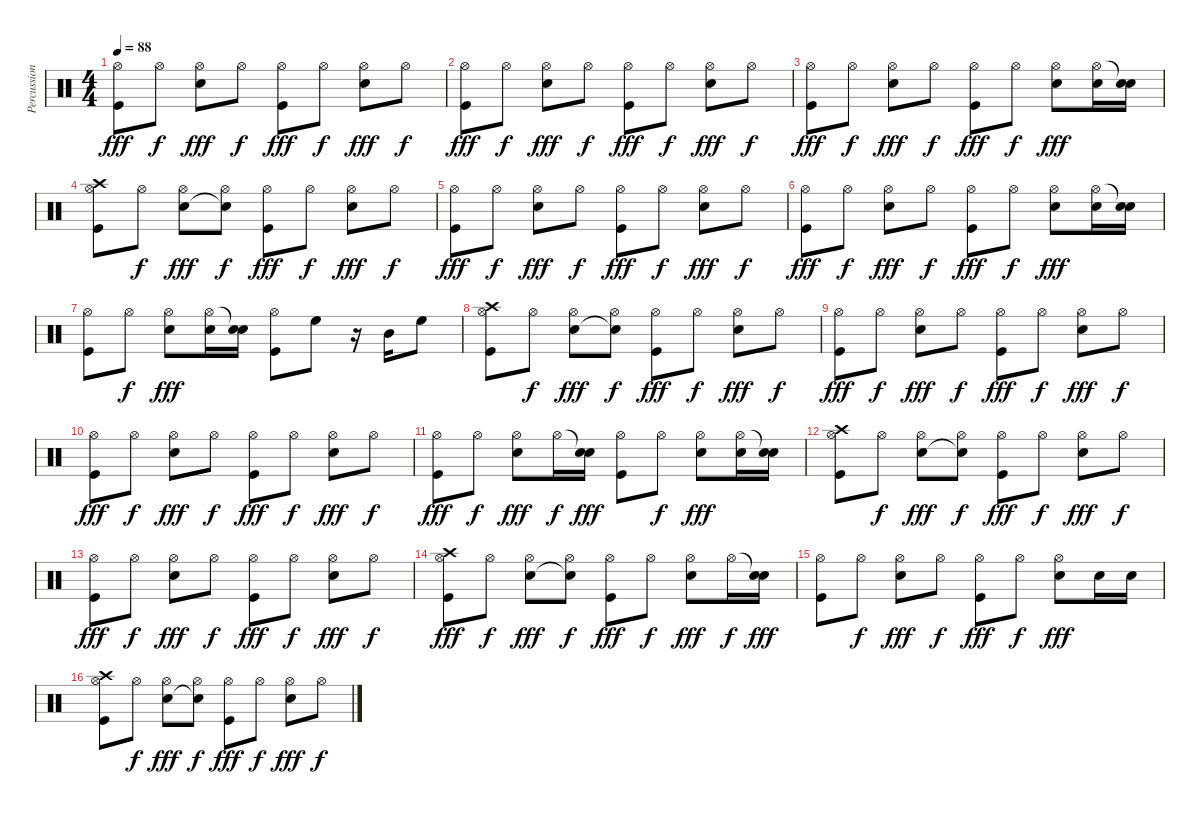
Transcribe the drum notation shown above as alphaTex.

\track ("Percussions" "Percussion") {instrument percussion}
\staff {score}
\articulation defaults
\ts (4 4)
\tempo 88
\clef neutral
\ks c
("Hi-Hat (open)" "Kick (hit)").8{dy fff} "Hi-Hat (open)".8{dy f} ("Hi-Hat (open)" "Snare (hit) 2").8{dy fff} "Hi-Hat (open)".8{dy f} ("Hi-Hat (open)" "Kick (hit)").8{dy fff} "Hi-Hat (open)".8{dy f} ("Hi-Hat (open)" "Snare (hit) 2").8{dy fff} "Hi-Hat (open)".8{dy f} |
("Hi-Hat (open)" "Kick (hit)").8{dy fff} "Hi-Hat (open)".8{dy f} ("Hi-Hat (open)" "Snare (hit) 2").8{dy fff} "Hi-Hat (open)".8{dy f} ("Hi-Hat (open)" "Kick (hit)").8{dy fff} "Hi-Hat (open)".8{dy f} ("Hi-Hat (open)" "Snare (hit) 2").8{dy fff} "Hi-Hat (open)".8{dy f} |
("Hi-Hat (open)" "Kick (hit)").8{dy fff} "Hi-Hat (open)".8{dy f} ("Hi-Hat (open)" "Snare (hit) 2").8{dy fff} "Hi-Hat (open)".8{dy f} ("Hi-Hat (open)" "Kick (hit)").8{dy fff} "Hi-Hat (open)".8{dy f} ("Hi-Hat (open)" "Snare (hit) 2").8{dy fff} ("Hi-Hat (open)" "Snare (hit) 2").16 ("Snare (hit)"{t} "Snare (hit) 2").16 |
("Hi-Hat (open)" "Kick (hit)" "Crash high (hit)").8 "Hi-Hat (open)".8{dy f} ("Hi-Hat (open)" "Snare (hit) 2").8{dy fff} ("Hi-Hat (open)" "Snare (hit)"{t}).8{dy f} ("Hi-Hat (open)" "Kick (hit)").8{dy fff} "Hi-Hat (open)".8{dy f} ("Hi-Hat (open)" "Snare (hit) 2").8{dy fff} "Hi-Hat (open)".8{dy f} |
("Hi-Hat (open)" "Kick (hit)").8{dy fff} "Hi-Hat (open)".8{dy f} ("Hi-Hat (open)" "Snare (hit) 2").8{dy fff} "Hi-Hat (open)".8{dy f} ("Hi-Hat (open)" "Kick (hit)").8{dy fff} "Hi-Hat (open)".8{dy f} ("Hi-Hat (open)" "Snare (hit) 2").8{dy fff} "Hi-Hat (open)".8{dy f} |
("Hi-Hat (open)" "Kick (hit)").8{dy fff} "Hi-Hat (open)".8{dy f} ("Hi-Hat (open)" "Snare (hit) 2").8{dy fff} "Hi-Hat (open)".8{dy f} ("Hi-Hat (open)" "Kick (hit)").8{dy fff} "Hi-Hat (open)".8{dy f} ("Hi-Hat (open)" "Snare (hit) 2").8{dy fff} ("Hi-Hat (open)" "Snare (hit) 2").16 ("Snare (hit)"{t} "Snare (hit) 2").16 |
("Hi-Hat (open)" "Kick (hit)").8 "Hi-Hat (open)".8{dy f} ("Hi-Hat (open)" "Snare (hit) 2").8{dy fff} ("Hi-Hat (open)" "Snare (hit) 2").16 ("Snare (hit)"{t} "Snare (hit) 2").16 ("Hi-Hat (open)" "Kick (hit)").8 "High Floor Tom (hit)".8 r.16 "Mid Tom (hit)".16 "High Floor Tom (hit)".8 |
("Hi-Hat (open)" "Kick (hit)" "Crash high (hit)").8 "Hi-Hat (open)".8{dy f} ("Hi-Hat (open)" "Snare (hit) 2").8{dy fff} ("Hi-Hat (open)" "Snare (hit)"{t}).8{dy f} ("Hi-Hat (open)" "Kick (hit)").8{dy fff} "Hi-Hat (open)".8{dy f} ("Hi-Hat (open)" "Snare (hit) 2").8{dy fff} "Hi-Hat (open)".8{dy f} |
("Hi-Hat (open)" "Kick (hit)").8{dy fff} "Hi-Hat (open)".8{dy f} ("Hi-Hat (open)" "Snare (hit) 2").8{dy fff} "Hi-Hat (open)".8{dy f} ("Hi-Hat (open)" "Kick (hit)").8{dy fff} "Hi-Hat (open)".8{dy f} ("Hi-Hat (open)" "Snare (hit) 2").8{dy fff} "Hi-Hat (open)".8{dy f} |
("Hi-Hat (open)" "Kick (hit)").8{dy fff} "Hi-Hat (open)".8{dy f} ("Hi-Hat (open)" "Snare (hit) 2").8{dy fff} "Hi-Hat (open)".8{dy f} ("Hi-Hat (open)" "Kick (hit)").8{dy fff} "Hi-Hat (open)".8{dy f} ("Hi-Hat (open)" "Snare (hit) 2").8{dy fff} "Hi-Hat (open)".8{dy f} |
("Hi-Hat (open)" "Kick (hit)").8{dy fff} "Hi-Hat (open)".8{dy f} ("Hi-Hat (open)" "Snare (hit) 2").8{dy fff} "Hi-Hat (open)".16{dy f} ("Snare (hit)"{t} "Snare (hit) 2").16{dy fff} ("Hi-Hat (open)" "Kick (hit)").8 "Hi-Hat (open)".8{dy f} ("Hi-Hat (open)" "Snare (hit) 2").8{dy fff} ("Hi-Hat (open)" "Snare (hit) 2").16 ("Snare (hit)"{t} "Snare (hit) 2").16 |
("Hi-Hat (open)" "Kick (hit)" "Crash high (hit)").8 "Hi-Hat (open)".8{dy f} ("Hi-Hat (open)" "Snare (hit) 2").8{dy fff} ("Hi-Hat (open)" "Snare (hit)"{t}).8{dy f} ("Hi-Hat (open)" "Kick (hit)").8{dy fff} "Hi-Hat (open)".8{dy f} ("Hi-Hat (open)" "Snare (hit) 2").8{dy fff} "Hi-Hat (open)".8{dy f} |
("Hi-Hat (open)" "Kick (hit)").8{dy fff} "Hi-Hat (open)".8{dy f} ("Hi-Hat (open)" "Snare (hit) 2").8{dy fff} "Hi-Hat (open)".8{dy f} ("Hi-Hat (open)" "Kick (hit)").8{dy fff} "Hi-Hat (open)".8{dy f} ("Hi-Hat (open)" "Snare (hit) 2").8{dy fff} "Hi-Hat (open)".8{dy f} |
("Hi-Hat (open)" "Kick (hit)" "Crash high (hit)").8{dy fff} "Hi-Hat (open)".8{dy f} ("Hi-Hat (open)" "Snare (hit) 2").8{dy fff} ("Hi-Hat (open)" "Snare (hit)"{t}).8{dy f} ("Hi-Hat (open)" "Kick (hit)").8{dy fff} "Hi-Hat (open)".8{dy f} ("Hi-Hat (open)" "Snare (hit) 2").8{dy fff} "Hi-Hat (open)".16{dy f} ("Snare (hit)"{t} "Snare (hit) 2").16{dy fff} |
("Hi-Hat (open)" "Kick (hit)").8 "Hi-Hat (open)".8{dy f} ("Hi-Hat (open)" "Snare (hit) 2").8{dy fff} "Hi-Hat (open)".8{dy f} ("Hi-Hat (open)" "Kick (hit)").8{dy fff} "Hi-Hat (open)".8{dy f} ("Hi-Hat (open)" "Snare (hit) 2").8{dy fff} "Snare (hit) 2".16 "Snare (hit) 2".16 |
("Hi-Hat (open)" "Kick (hit)" "Crash high (hit)").8 "Hi-Hat (open)".8{dy f} ("Hi-Hat (open)" "Snare (hit) 2").8{dy fff} ("Hi-Hat (open)" "Snare (hit)"{t}).8{dy f} ("Hi-Hat (open)" "Kick (hit)").8{dy fff} "Hi-Hat (open)".8{dy f} ("Hi-Hat (open)" "Snare (hit) 2").8{dy fff} "Hi-Hat (open)".8{dy f}
